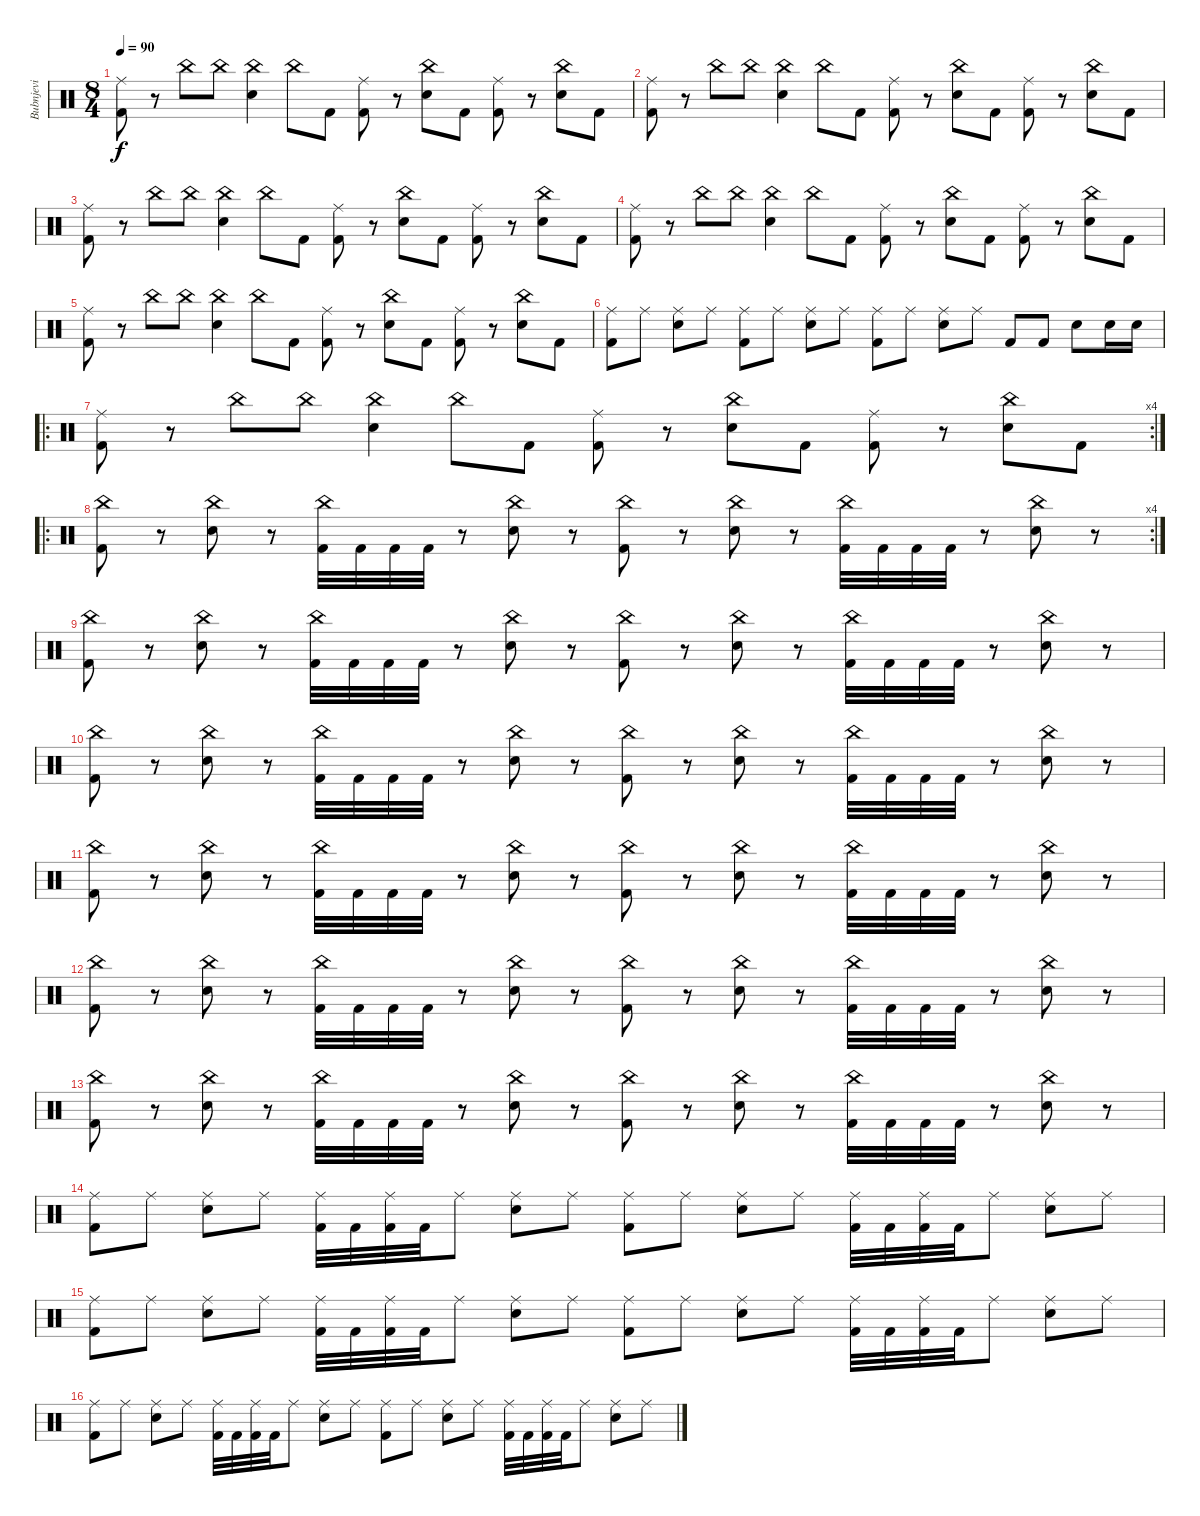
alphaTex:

\track ("Bubnjevi" "Bubnjevi") {instrument percussion}
\staff {score}
\articulation defaults
\ts (8 4)
\tempo 90
\clef neutral
\ks c
("Kick (hit) 2" "Ride (middle)").8{dy f} r.8 "China (hit)".8 "China (hit)".8 ("Snare (hit) 2" "China (hit)").4 "China (hit)".8 "Kick (hit) 2".8 ("Kick (hit) 2" "Ride (middle)").8 r.8 ("Snare (hit) 2" "China (hit)").8 "Kick (hit) 2".8 ("Kick (hit) 2" "Ride (middle)").8 r.8 ("Snare (hit) 2" "China (hit)").8 "Kick (hit) 2".8 |
("Kick (hit) 2" "Ride (middle)").8 r.8 "China (hit)".8 "China (hit)".8 ("Snare (hit) 2" "China (hit)").4 "China (hit)".8 "Kick (hit) 2".8 ("Kick (hit) 2" "Ride (middle)").8 r.8 ("Snare (hit) 2" "China (hit)").8 "Kick (hit) 2".8 ("Kick (hit) 2" "Ride (middle)").8 r.8 ("Snare (hit) 2" "China (hit)").8 "Kick (hit) 2".8 |
("Kick (hit) 2" "Ride (middle)").8 r.8 "China (hit)".8 "China (hit)".8 ("Snare (hit) 2" "China (hit)").4 "China (hit)".8 "Kick (hit) 2".8 ("Kick (hit) 2" "Ride (middle)").8 r.8 ("Snare (hit) 2" "China (hit)").8 "Kick (hit) 2".8 ("Kick (hit) 2" "Ride (middle)").8 r.8 ("Snare (hit) 2" "China (hit)").8 "Kick (hit) 2".8 |
("Kick (hit) 2" "Ride (middle)").8 r.8 "China (hit)".8 "China (hit)".8 ("Snare (hit) 2" "China (hit)").4 "China (hit)".8 "Kick (hit) 2".8 ("Kick (hit) 2" "Ride (middle)").8 r.8 ("Snare (hit) 2" "China (hit)").8 "Kick (hit) 2".8 ("Kick (hit) 2" "Ride (middle)").8 r.8 ("Snare (hit) 2" "China (hit)").8 "Kick (hit) 2".8 |
("Kick (hit) 2" "Ride (middle)").8 r.8 "China (hit)".8 "China (hit)".8 ("Snare (hit) 2" "China (hit)").4 "China (hit)".8 "Kick (hit) 2".8 ("Kick (hit) 2" "Ride (middle)").8 r.8 ("Snare (hit) 2" "China (hit)").8 "Kick (hit) 2".8 ("Kick (hit) 2" "Ride (middle)").8 r.8 ("Snare (hit) 2" "China (hit)").8 "Kick (hit) 2".8 |
("Kick (hit) 2" "Ride (middle)").8 "Ride (middle)".8 ("Snare (hit) 2" "Ride (middle)").8 "Ride (middle)".8 ("Kick (hit) 2" "Ride (middle)").8 "Ride (middle)".8 ("Snare (hit) 2" "Ride (middle)").8 "Ride (middle)".8 ("Kick (hit) 2" "Ride (middle)").8 "Ride (middle)".8 ("Snare (hit) 2" "Ride (middle)").8 "Ride (middle)".8 "Kick (hit) 2".8 "Kick (hit) 2".8 "Snare (hit) 2".8 "Snare (hit) 2".16 "Snare (hit) 2".16 |
\ro
\rc 4
("Kick (hit) 2" "Ride (middle)").8 r.8 "China (hit)".8 "China (hit)".8 ("Snare (hit) 2" "China (hit)").4 "China (hit)".8 "Kick (hit) 2".8 ("Kick (hit) 2" "Ride (middle)").8 r.8 ("Snare (hit) 2" "China (hit)").8 "Kick (hit) 2".8 ("Kick (hit) 2" "Ride (middle)").8 r.8 ("Snare (hit) 2" "China (hit)").8 "Kick (hit) 2".8 |
\ro
\rc 4
("Kick (hit) 2" "China (hit)").8 r.8 ("Snare (hit) 2" "China (hit)").8 r.8 ("Kick (hit) 2" "China (hit)").32 "Kick (hit) 2".32 "Kick (hit) 2".32 "Kick (hit) 2".32 r.8 ("Snare (hit) 2" "China (hit)").8 r.8 ("Kick (hit) 2" "China (hit)").8 r.8 ("Snare (hit) 2" "China (hit)").8 r.8 ("Kick (hit) 2" "China (hit)").32 "Kick (hit) 2".32 "Kick (hit) 2".32 "Kick (hit) 2".32 r.8 ("Snare (hit) 2" "China (hit)").8 r.8 |
("Kick (hit) 2" "China (hit)").8 r.8 ("Snare (hit) 2" "China (hit)").8 r.8 ("Kick (hit) 2" "China (hit)").32 "Kick (hit) 2".32 "Kick (hit) 2".32 "Kick (hit) 2".32 r.8 ("Snare (hit) 2" "China (hit)").8 r.8 ("Kick (hit) 2" "China (hit)").8 r.8 ("Snare (hit) 2" "China (hit)").8 r.8 ("Kick (hit) 2" "China (hit)").32 "Kick (hit) 2".32 "Kick (hit) 2".32 "Kick (hit) 2".32 r.8 ("Snare (hit) 2" "China (hit)").8 r.8 |
("Kick (hit) 2" "China (hit)").8 r.8 ("Snare (hit) 2" "China (hit)").8 r.8 ("Kick (hit) 2" "China (hit)").32 "Kick (hit) 2".32 "Kick (hit) 2".32 "Kick (hit) 2".32 r.8 ("Snare (hit) 2" "China (hit)").8 r.8 ("Kick (hit) 2" "China (hit)").8 r.8 ("Snare (hit) 2" "China (hit)").8 r.8 ("Kick (hit) 2" "China (hit)").32 "Kick (hit) 2".32 "Kick (hit) 2".32 "Kick (hit) 2".32 r.8 ("Snare (hit) 2" "China (hit)").8 r.8 |
("Kick (hit) 2" "China (hit)").8 r.8 ("Snare (hit) 2" "China (hit)").8 r.8 ("Kick (hit) 2" "China (hit)").32 "Kick (hit) 2".32 "Kick (hit) 2".32 "Kick (hit) 2".32 r.8 ("Snare (hit) 2" "China (hit)").8 r.8 ("Kick (hit) 2" "China (hit)").8 r.8 ("Snare (hit) 2" "China (hit)").8 r.8 ("Kick (hit) 2" "China (hit)").32 "Kick (hit) 2".32 "Kick (hit) 2".32 "Kick (hit) 2".32 r.8 ("Snare (hit) 2" "China (hit)").8 r.8 |
("Kick (hit) 2" "China (hit)").8 r.8 ("Snare (hit) 2" "China (hit)").8 r.8 ("Kick (hit) 2" "China (hit)").32 "Kick (hit) 2".32 "Kick (hit) 2".32 "Kick (hit) 2".32 r.8 ("Snare (hit) 2" "China (hit)").8 r.8 ("Kick (hit) 2" "China (hit)").8 r.8 ("Snare (hit) 2" "China (hit)").8 r.8 ("Kick (hit) 2" "China (hit)").32 "Kick (hit) 2".32 "Kick (hit) 2".32 "Kick (hit) 2".32 r.8 ("Snare (hit) 2" "China (hit)").8 r.8 |
("Kick (hit) 2" "China (hit)").8 r.8 ("Snare (hit) 2" "China (hit)").8 r.8 ("Kick (hit) 2" "China (hit)").32 "Kick (hit) 2".32 "Kick (hit) 2".32 "Kick (hit) 2".32 r.8 ("Snare (hit) 2" "China (hit)").8 r.8 ("Kick (hit) 2" "China (hit)").8 r.8 ("Snare (hit) 2" "China (hit)").8 r.8 ("Kick (hit) 2" "China (hit)").32 "Kick (hit) 2".32 "Kick (hit) 2".32 "Kick (hit) 2".32 r.8 ("Snare (hit) 2" "China (hit)").8 r.8 |
("Kick (hit) 2" "Ride (middle)").8 "Ride (middle)".8 ("Snare (hit) 2" "Ride (middle)").8 "Ride (middle)".8 ("Kick (hit) 2" "Ride (middle)").32 "Kick (hit) 2".32 ("Kick (hit) 2" "Ride (middle)").32 "Kick (hit) 2".32 "Ride (middle)".8 ("Snare (hit) 2" "Ride (middle)").8 "Ride (middle)".8 ("Kick (hit) 2" "Ride (middle)").8 "Ride (middle)".8 ("Snare (hit) 2" "Ride (middle)").8 "Ride (middle)".8 ("Kick (hit) 2" "Ride (middle)").32 "Kick (hit) 2".32 ("Kick (hit) 2" "Ride (middle)").32 "Kick (hit) 2".32 "Ride (middle)".8 ("Snare (hit) 2" "Ride (middle)").8 "Ride (middle)".8 |
("Kick (hit) 2" "Ride (middle)").8 "Ride (middle)".8 ("Snare (hit) 2" "Ride (middle)").8 "Ride (middle)".8 ("Kick (hit) 2" "Ride (middle)").32 "Kick (hit) 2".32 ("Kick (hit) 2" "Ride (middle)").32 "Kick (hit) 2".32 "Ride (middle)".8 ("Snare (hit) 2" "Ride (middle)").8 "Ride (middle)".8 ("Kick (hit) 2" "Ride (middle)").8 "Ride (middle)".8 ("Snare (hit) 2" "Ride (middle)").8 "Ride (middle)".8 ("Kick (hit) 2" "Ride (middle)").32 "Kick (hit) 2".32 ("Kick (hit) 2" "Ride (middle)").32 "Kick (hit) 2".32 "Ride (middle)".8 ("Snare (hit) 2" "Ride (middle)").8 "Ride (middle)".8 |
("Kick (hit) 2" "Ride (middle)").8 "Ride (middle)".8 ("Snare (hit) 2" "Ride (middle)").8 "Ride (middle)".8 ("Kick (hit) 2" "Ride (middle)").32 "Kick (hit) 2".32 ("Kick (hit) 2" "Ride (middle)").32 "Kick (hit) 2".32 "Ride (middle)".8 ("Snare (hit) 2" "Ride (middle)").8 "Ride (middle)".8 ("Kick (hit) 2" "Ride (middle)").8 "Ride (middle)".8 ("Snare (hit) 2" "Ride (middle)").8 "Ride (middle)".8 ("Kick (hit) 2" "Ride (middle)").32 "Kick (hit) 2".32 ("Kick (hit) 2" "Ride (middle)").32 "Kick (hit) 2".32 "Ride (middle)".8 ("Snare (hit) 2" "Ride (middle)").8 "Ride (middle)".8
